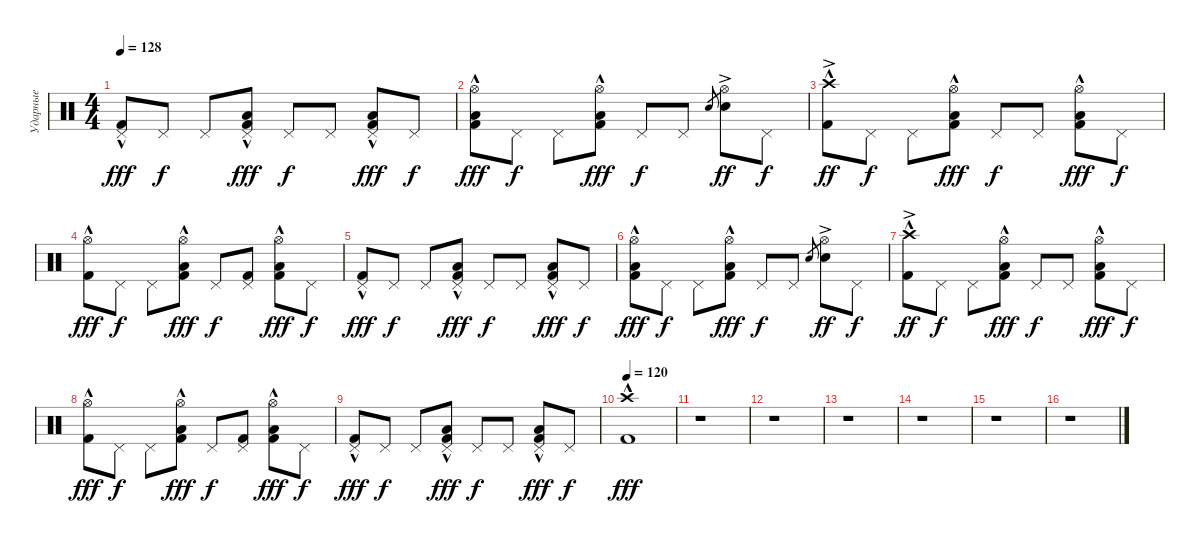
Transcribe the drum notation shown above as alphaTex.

\track ("Ударные" "Ударные") {instrument percussion}
\staff {score}
\articulation defaults
\ts (4 4)
\tempo 128
\clef neutral
\ks c
("Kick (hit) 2"{hac} "Pedal Hi-Hat (hit)").8{dy fff} "Pedal Hi-Hat (hit)".8{dy f} "Pedal Hi-Hat (hit)".8 ("Kick (hit) 2"{hac} "Low Floor Tom (hit)"{hac} "Pedal Hi-Hat (hit)").8{dy fff} "Pedal Hi-Hat (hit)".8{dy f} "Pedal Hi-Hat (hit)".8 ("Kick (hit) 2"{hac} "Low Floor Tom (hit)"{hac} "Pedal Hi-Hat (hit)").8{dy fff} "Pedal Hi-Hat (hit)".8{dy f} |
("Kick (hit) 2"{hac} "Low Floor Tom (hit)"{hac} "Hi-Hat (open)").8{dy fff} "Pedal Hi-Hat (hit)".8{dy f} "Pedal Hi-Hat (hit)".8 ("Kick (hit) 2"{hac} "Low Floor Tom (hit)"{hac} "Hi-Hat (open)").8{dy fff} "Pedal Hi-Hat (hit)".8{dy f} "Pedal Hi-Hat (hit)".8 "Snare (hit) 2".8{gr} ("Snare (hit) 2"{ac} "Hi-Hat (open)").8{dy ff} "Pedal Hi-Hat (hit)".8{dy f} |
("Kick (hit) 2"{hac} "Crash high (hit)"{ac}).8{dy ff} "Pedal Hi-Hat (hit)".8{dy f} "Pedal Hi-Hat (hit)".8 ("Kick (hit) 2"{hac} "Low Floor Tom (hit)"{hac} "Hi-Hat (open)").8{dy fff} "Pedal Hi-Hat (hit)".8{dy f} "Pedal Hi-Hat (hit)".8 ("Kick (hit) 2"{hac} "Low Floor Tom (hit)"{hac} "Hi-Hat (open)").8{dy fff} "Pedal Hi-Hat (hit)".8{dy f} |
("Kick (hit) 2"{hac} "Hi-Hat (open)").8{dy fff} "Pedal Hi-Hat (hit)".8{dy f} "Pedal Hi-Hat (hit)".8 ("Kick (hit) 2"{hac} "Low Floor Tom (hit)"{hac} "Hi-Hat (open)").8{dy fff} "Pedal Hi-Hat (hit)".8{dy f} ("Kick (hit) 2" "Pedal Hi-Hat (hit)").8 ("Kick (hit) 2"{hac} "Low Floor Tom (hit)"{hac} "Hi-Hat (open)").8{dy fff} "Pedal Hi-Hat (hit)".8{dy f} |
("Kick (hit) 2"{hac} "Pedal Hi-Hat (hit)").8{dy fff} "Pedal Hi-Hat (hit)".8{dy f} "Pedal Hi-Hat (hit)".8 ("Kick (hit) 2"{hac} "Low Floor Tom (hit)"{hac} "Pedal Hi-Hat (hit)").8{dy fff} "Pedal Hi-Hat (hit)".8{dy f} "Pedal Hi-Hat (hit)".8 ("Kick (hit) 2"{hac} "Low Floor Tom (hit)"{hac} "Pedal Hi-Hat (hit)").8{dy fff} "Pedal Hi-Hat (hit)".8{dy f} |
("Kick (hit) 2"{hac} "Low Floor Tom (hit)"{hac} "Hi-Hat (open)").8{dy fff} "Pedal Hi-Hat (hit)".8{dy f} "Pedal Hi-Hat (hit)".8 ("Kick (hit) 2"{hac} "Low Floor Tom (hit)"{hac} "Hi-Hat (open)").8{dy fff} "Pedal Hi-Hat (hit)".8{dy f} "Pedal Hi-Hat (hit)".8 "Snare (hit) 2".8{gr} ("Snare (hit) 2"{ac} "Hi-Hat (open)").8{dy ff} "Pedal Hi-Hat (hit)".8{dy f} |
("Kick (hit) 2"{hac} "Crash high (hit)"{ac}).8{dy ff} "Pedal Hi-Hat (hit)".8{dy f} "Pedal Hi-Hat (hit)".8 ("Kick (hit) 2"{hac} "Low Floor Tom (hit)"{hac} "Hi-Hat (open)").8{dy fff} "Pedal Hi-Hat (hit)".8{dy f} "Pedal Hi-Hat (hit)".8 ("Kick (hit) 2"{hac} "Low Floor Tom (hit)"{hac} "Hi-Hat (open)").8{dy fff} "Pedal Hi-Hat (hit)".8{dy f} |
("Kick (hit) 2"{hac} "Hi-Hat (open)").8{dy fff} "Pedal Hi-Hat (hit)".8{dy f} "Pedal Hi-Hat (hit)".8 ("Kick (hit) 2"{hac} "Low Floor Tom (hit)"{hac} "Hi-Hat (open)").8{dy fff} "Pedal Hi-Hat (hit)".8{dy f} ("Kick (hit) 2" "Pedal Hi-Hat (hit)").8 ("Kick (hit) 2"{hac} "Low Floor Tom (hit)"{hac} "Hi-Hat (open)").8{dy fff} "Pedal Hi-Hat (hit)".8{dy f} |
("Kick (hit) 2"{hac} "Pedal Hi-Hat (hit)").8{dy fff} "Pedal Hi-Hat (hit)".8{dy f} "Pedal Hi-Hat (hit)".8 ("Kick (hit) 2"{hac} "Low Floor Tom (hit)"{hac} "Pedal Hi-Hat (hit)").8{dy fff} "Pedal Hi-Hat (hit)".8{dy f} "Pedal Hi-Hat (hit)".8 ("Kick (hit) 2"{hac} "Low Floor Tom (hit)"{hac} "Pedal Hi-Hat (hit)").8{dy fff} "Pedal Hi-Hat (hit)".8{dy f} |
\tempo 120
("Kick (hit) 2"{hac} "Crash high (hit)"{hac}).1{dy fff} |
r.1 |
r.1 |
r.1 |
r.1 |
r.1 |
r.1
